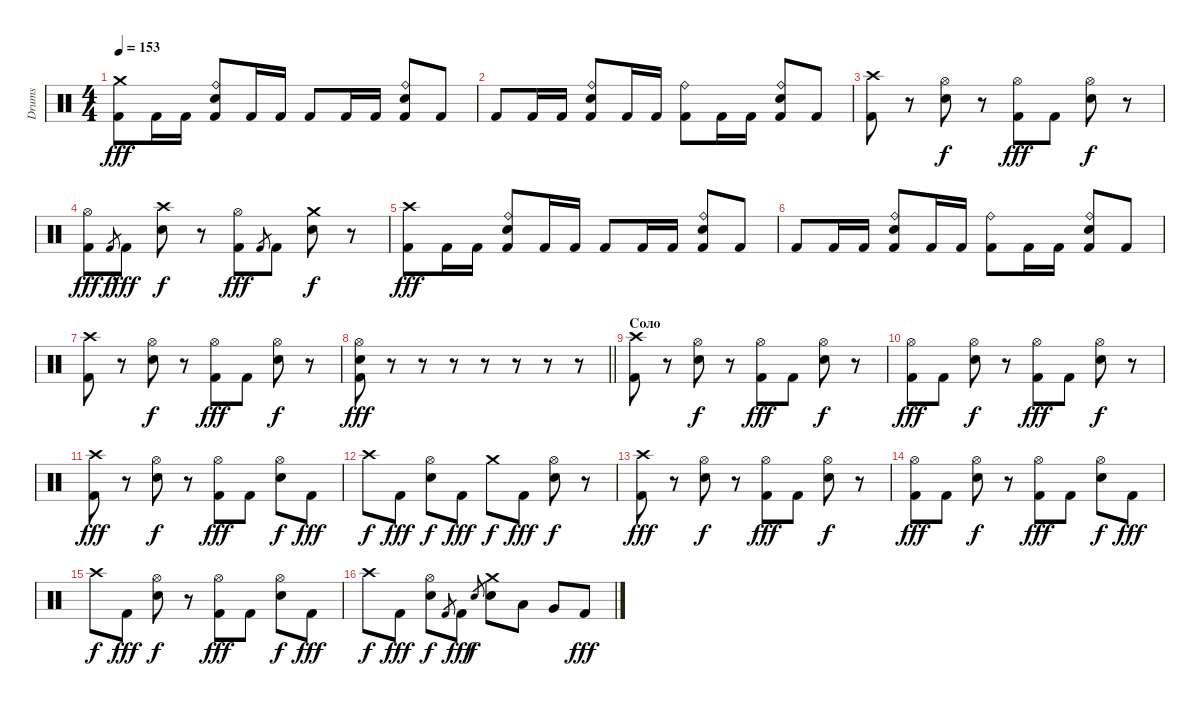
\track ("Drums" "Drums") {instrument percussion}
\staff {score}
\articulation defaults
\ts (4 4)
\tempo 153
\clef neutral
\ks c
("Crash medium (hit)" "Kick (hit) 2").8{dy fff} "Kick (hit) 2".16 "Kick (hit) 2".16 ("Ride (bell)" "Electric Snare (hit)" "Kick (hit) 2").8 "Kick (hit) 2".16 "Kick (hit) 2".16 "Kick (hit) 2".8 "Kick (hit) 2".16 "Kick (hit) 2".16 ("Ride (bell)" "Electric Snare (hit)" "Kick (hit) 2").8 "Kick (hit) 2".8 |
"Kick (hit) 2".8 "Kick (hit) 2".16 "Kick (hit) 2".16 ("Ride (bell)" "Electric Snare (hit)" "Kick (hit) 2").8 "Kick (hit) 2".16 "Kick (hit) 2".16 ("Ride (bell)" "Kick (hit) 2").8 "Kick (hit) 2".16 "Kick (hit) 2".16 ("Ride (bell)" "Electric Snare (hit)" "Kick (hit) 2").8 "Kick (hit) 2".8 |
("Crash high (hit)" "Kick (hit) 2").8 r.8 ("Hi-Hat (open)" "Electric Snare (hit)").8{dy f} r.8 ("Hi-Hat (open)" "Kick (hit) 2").8{dy fff} "Kick (hit) 2".8 ("Hi-Hat (open)" "Electric Snare (hit)").8{dy f} r.8 |
("Hi-Hat (open)" "Kick (hit) 2").8{dy fff} "Kick (hit) 2".8{gr dy f} "Kick (hit) 2".8{dy fff} ("Crash high (hit)" "Electric Snare (hit)").8{dy f} r.8 ("Hi-Hat (open)" "Kick (hit) 2").8{dy fff} "Kick (hit) 2".8{gr} "Kick (hit) 2".8 ("Crash medium (hit)" "Electric Snare (hit)").8{dy f} r.8 |
("Crash high (hit)" "Kick (hit) 2").8{dy fff} "Kick (hit) 2".16 "Kick (hit) 2".16 ("Ride (bell)" "Electric Snare (hit)" "Kick (hit) 2").8 "Kick (hit) 2".16 "Kick (hit) 2".16 "Kick (hit) 2".8 "Kick (hit) 2".16 "Kick (hit) 2".16 ("Ride (bell)" "Electric Snare (hit)" "Kick (hit) 2").8 "Kick (hit) 2".8 |
"Kick (hit) 2".8 "Kick (hit) 2".16 "Kick (hit) 2".16 ("Ride (bell)" "Electric Snare (hit)" "Kick (hit) 2").8 "Kick (hit) 2".16 "Kick (hit) 2".16 ("Ride (bell)" "Kick (hit) 2").8 "Kick (hit) 2".16 "Kick (hit) 2".16 ("Ride (bell)" "Electric Snare (hit)" "Kick (hit) 2").8 "Kick (hit) 2".8 |
("Crash high (hit)" "Kick (hit) 2").8 r.8 ("Hi-Hat (open)" "Electric Snare (hit)").8{dy f} r.8 ("Hi-Hat (open)" "Kick (hit) 2").8{dy fff} "Kick (hit) 2".8 ("Hi-Hat (open)" "Electric Snare (hit)").8{dy f} r.8 |
\barLineRight lightlight
("Hi-Hat (open)" "Electric Snare (hit)" "Kick (hit) 2").8{dy fff} r.8 r.8 r.8 r.8 r.8 r.8 r.8 |
\section ("" "Соло")
("Crash high (hit)" "Kick (hit) 2").8 r.8 ("Hi-Hat (open)" "Electric Snare (hit)").8{dy f} r.8 ("Hi-Hat (open)" "Kick (hit) 2").8{dy fff} "Kick (hit) 2".8 ("Hi-Hat (open)" "Electric Snare (hit)").8{dy f} r.8 |
("Hi-Hat (open)" "Kick (hit) 2").8{dy fff} "Kick (hit) 2".8 ("Hi-Hat (open)" "Electric Snare (hit)").8{dy f} r.8 ("Hi-Hat (open)" "Kick (hit) 2").8{dy fff} "Kick (hit) 2".8 ("Hi-Hat (open)" "Electric Snare (hit)").8{dy f} r.8 |
("Crash high (hit)" "Kick (hit) 2").8{dy fff} r.8 ("Hi-Hat (open)" "Electric Snare (hit)").8{dy f} r.8 ("Hi-Hat (open)" "Kick (hit) 2").8{dy fff} "Kick (hit) 2".8 ("Hi-Hat (open)" "Electric Snare (hit)").8{dy f} "Kick (hit) 2".8{dy fff} |
"Crash high (hit)".8{dy f} "Kick (hit) 2".8{dy fff} ("Hi-Hat (open)" "Electric Snare (hit)").8{dy f} "Kick (hit) 2".8{dy fff} "Crash medium (hit)".8{dy f} "Kick (hit) 2".8{dy fff} ("Hi-Hat (open)" "Electric Snare (hit)").8{dy f} r.8 |
("Crash high (hit)" "Kick (hit) 2").8{dy fff} r.8 ("Hi-Hat (open)" "Electric Snare (hit)").8{dy f} r.8 ("Hi-Hat (open)" "Kick (hit) 2").8{dy fff} "Kick (hit) 2".8 ("Hi-Hat (open)" "Electric Snare (hit)").8{dy f} r.8 |
("Hi-Hat (open)" "Kick (hit) 2").8{dy fff} "Kick (hit) 2".8 ("Hi-Hat (open)" "Electric Snare (hit)").8{dy f} r.8 ("Hi-Hat (open)" "Kick (hit) 2").8{dy fff} "Kick (hit) 2".8 ("Hi-Hat (open)" "Electric Snare (hit)").8{dy f} "Kick (hit) 2".8{dy fff} |
"Crash high (hit)".8{dy f} "Kick (hit) 2".8{dy fff} ("Hi-Hat (open)" "Electric Snare (hit)").8{dy f} r.8 ("Hi-Hat (open)" "Kick (hit) 2").8{dy fff} "Kick (hit) 2".8 ("Hi-Hat (open)" "Electric Snare (hit)").8{dy f} "Kick (hit) 2".8{dy fff} |
"Crash high (hit)".8{dy f} "Kick (hit) 2".8{dy fff} ("Hi-Hat (open)" "Electric Snare (hit)").8{dy f} "Kick (hit) 2".8{gr} "Kick (hit) 2".8{dy fff} "Electric Snare (hit)".8{gr dy f} ("Crash medium (hit)" "Electric Snare (hit)").8 "Low Tom (hit)".8 "Very Low Tom (hit)".8 "Kick (hit) 2".8{dy fff}
